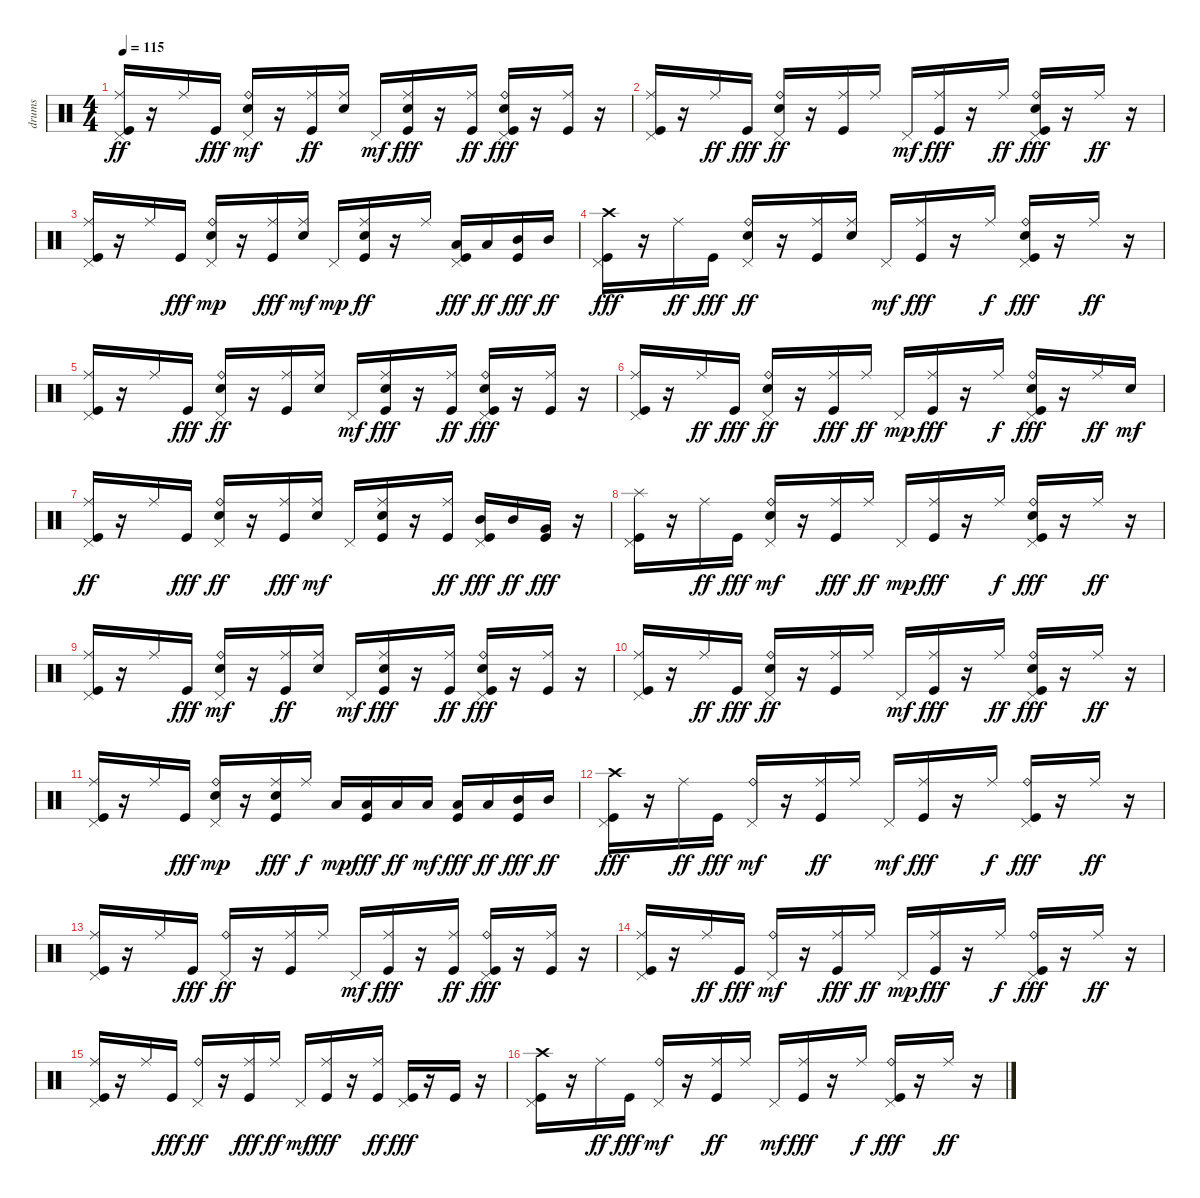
\track ("drums" "drums") {instrument percussion}
\staff {score}
\articulation defaults
\ts (4 4)
\tempo 115
\clef neutral
\ks c
("Pedal Hi-Hat (hit)" "Kick (hit)" "Ride (middle)").16{dy ff} r.16 "Ride (middle)".16 "Kick (hit)".16{dy fff} ("Pedal Hi-Hat (hit)" "Snare (hit) 2" "Ride (bell)").16{dy mf} r.16 ("Kick (hit)" "Ride (middle)").16{dy ff} ("Ride (middle)" "Snare (hit) 2").16 "Pedal Hi-Hat (hit)".16{dy mf} ("Ride (middle)" "Snare (hit) 2" "Kick (hit)").16{dy fff} r.16 ("Kick (hit)" "Ride (middle)").16{dy ff} ("Pedal Hi-Hat (hit)" "Snare (hit) 2" "Ride (bell)" "Kick (hit)").16{dy fff} r.16 ("Ride (middle)" "Kick (hit)").16 r.16 |
("Pedal Hi-Hat (hit)" "Ride (middle)" "Kick (hit)").16 r.16 "Ride (middle)".16{dy ff} "Kick (hit)".16{dy fff} ("Pedal Hi-Hat (hit)" "Ride (bell)" "Snare (hit) 2").16{dy ff} r.16 ("Kick (hit)" "Ride (middle)").16 "Ride (middle)".16 "Pedal Hi-Hat (hit)".16{dy mf} ("Ride (middle)" "Kick (hit)").16{dy fff} r.16 "Ride (middle)".16{dy ff} ("Pedal Hi-Hat (hit)" "Kick (hit)" "Ride (bell)" "Snare (hit) 2").16{dy fff} r.16 "Ride (middle)".16{dy ff} r.16 |
("Pedal Hi-Hat (hit)" "Kick (hit)" "Ride (middle)").16 r.16 "Ride (middle)".16 "Kick (hit)".16{dy fff} ("Pedal Hi-Hat (hit)" "Snare (hit) 2" "Ride (bell)").16{dy mp} r.16 ("Kick (hit)" "Ride (middle)").16{dy fff} ("Ride (middle)" "Snare (hit) 2").16{dy mf} "Pedal Hi-Hat (hit)".16{dy mp} ("Kick (hit)" "Ride (middle)" "Snare (hit) 2").16{dy ff} r.16 "Ride (middle)".16 ("Low Floor Tom (hit)" "Pedal Hi-Hat (hit)" "Kick (hit)").16{dy fff} "Low Floor Tom (hit)".16{dy ff} ("Mid Tom (hit)" "Kick (hit)").16{dy fff} "Mid Tom (hit)".16{dy ff} |
("Crash high (hit)" "Pedal Hi-Hat (hit)" "Kick (hit)").16{dy fff} r.16 "Ride (middle)".16{dy ff} "Kick (hit)".16{dy fff} ("Pedal Hi-Hat (hit)" "Snare (hit) 2" "Ride (bell)").16{dy ff} r.16 ("Kick (hit)" "Ride (middle)").16 ("Snare (hit) 2" "Ride (middle)").16 "Pedal Hi-Hat (hit)".16{dy mf} ("Ride (middle)" "Kick (hit)").16{dy fff} r.16 "Ride (middle)".16{dy f} ("Pedal Hi-Hat (hit)" "Snare (hit) 2" "Ride (bell)" "Kick (hit)").16{dy fff} r.16 "Ride (middle)".16{dy ff} r.16 |
("Pedal Hi-Hat (hit)" "Kick (hit)" "Ride (middle)").16 r.16 "Ride (middle)".16 "Kick (hit)".16{dy fff} ("Pedal Hi-Hat (hit)" "Snare (hit) 2" "Ride (bell)").16{dy ff} r.16 ("Kick (hit)" "Ride (middle)").16 ("Ride (middle)" "Snare (hit) 2").16 "Pedal Hi-Hat (hit)".16{dy mf} ("Ride (middle)" "Snare (hit) 2" "Kick (hit)").16{dy fff} r.16 ("Ride (middle)" "Kick (hit)").16{dy ff} ("Pedal Hi-Hat (hit)" "Ride (bell)" "Snare (hit) 2" "Kick (hit)").16{dy fff} r.16 ("Ride (middle)" "Kick (hit)").16 r.16 |
("Pedal Hi-Hat (hit)" "Ride (middle)" "Kick (hit)").16 r.16 "Ride (middle)".16{dy ff} "Kick (hit)".16{dy fff} ("Pedal Hi-Hat (hit)" "Snare (hit) 2" "Ride (bell)").16{dy ff} r.16 ("Ride (middle)" "Kick (hit)").16{dy fff} "Ride (middle)".16{dy ff} "Pedal Hi-Hat (hit)".16{dy mp} ("Ride (middle)" "Kick (hit)").16{dy fff} r.16 "Ride (middle)".16{dy f} ("Pedal Hi-Hat (hit)" "Ride (bell)" "Snare (hit) 2" "Kick (hit)").16{dy fff} r.16 "Ride (middle)".16{dy ff} "Snare (hit) 2".16{dy mf} |
("Pedal Hi-Hat (hit)" "Kick (hit)" "Ride (middle)").16{dy ff} r.16 "Ride (middle)".16 "Kick (hit)".16{dy fff} ("Pedal Hi-Hat (hit)" "Ride (bell)" "Snare (hit) 2").16{dy ff} r.16 ("Kick (hit)" "Ride (middle)").16{dy fff} ("Ride (middle)" "Snare (hit) 2").16{dy mf} "Pedal Hi-Hat (hit)".16 ("Ride (middle)" "Kick (hit)" "Snare (hit) 2").16 r.16 ("Kick (hit)" "Ride (middle)").16{dy ff} ("Mid Tom (hit)" "Pedal Hi-Hat (hit)" "Kick (hit)").16{dy fff} "Mid Tom (hit)".16{dy ff} ("Very Low Tom (hit)" "Kick (hit)").16{dy fff} r.16 |
("Splash (hit)" "Pedal Hi-Hat (hit)" "Kick (hit)").16 r.16 "Ride (middle)".16{dy ff} "Kick (hit)".16{dy fff} ("Pedal Hi-Hat (hit)" "Snare (hit) 2" "Ride (bell)").16{dy mf} r.16 ("Ride (middle)" "Kick (hit)").16{dy fff} "Ride (middle)".16{dy ff} "Pedal Hi-Hat (hit)".16{dy mp} ("Ride (middle)" "Kick (hit)").16{dy fff} r.16 "Ride (middle)".16{dy f} ("Pedal Hi-Hat (hit)" "Ride (bell)" "Snare (hit) 2" "Kick (hit)").16{dy fff} r.16 "Ride (middle)".16{dy ff} r.16 |
("Pedal Hi-Hat (hit)" "Kick (hit)" "Ride (middle)").16 r.16 "Ride (middle)".16 "Kick (hit)".16{dy fff} ("Pedal Hi-Hat (hit)" "Snare (hit) 2" "Ride (bell)").16{dy mf} r.16 ("Kick (hit)" "Ride (middle)").16{dy ff} ("Ride (middle)" "Snare (hit) 2").16 "Pedal Hi-Hat (hit)".16{dy mf} ("Ride (middle)" "Snare (hit) 2" "Kick (hit)").16{dy fff} r.16 ("Kick (hit)" "Ride (middle)").16{dy ff} ("Pedal Hi-Hat (hit)" "Snare (hit) 2" "Ride (bell)" "Kick (hit)").16{dy fff} r.16 ("Ride (middle)" "Kick (hit)").16 r.16 |
("Pedal Hi-Hat (hit)" "Ride (middle)" "Kick (hit)").16 r.16 "Ride (middle)".16{dy ff} "Kick (hit)".16{dy fff} ("Pedal Hi-Hat (hit)" "Ride (bell)" "Snare (hit) 2").16{dy ff} r.16 ("Kick (hit)" "Ride (middle)").16 "Ride (middle)".16 "Pedal Hi-Hat (hit)".16{dy mf} ("Ride (middle)" "Kick (hit)").16{dy fff} r.16 "Ride (middle)".16{dy ff} ("Pedal Hi-Hat (hit)" "Kick (hit)" "Ride (bell)" "Snare (hit) 2").16{dy fff} r.16 "Ride (middle)".16{dy ff} r.16 |
("Pedal Hi-Hat (hit)" "Kick (hit)" "Ride (middle)").16 r.16 "Ride (middle)".16 "Kick (hit)".16{dy fff} ("Pedal Hi-Hat (hit)" "Snare (hit) 2" "Ride (bell)").16{dy mp} r.16 ("Snare (hit) 2" "Kick (hit)" "Ride (middle)").16{dy fff} "Ride (middle)".16{dy f} "Low Floor Tom (hit)".16{dy mp} ("Low Floor Tom (hit)" "Kick (hit)").16{dy fff} "Low Tom (hit)".16{dy ff} "Low Tom (hit)".16{dy mf} ("Low Floor Tom (hit)" "Kick (hit)").16{dy fff} "Low Floor Tom (hit)".16{dy ff} ("Mid Tom (hit)" "Kick (hit)").16{dy fff} "Mid Tom (hit)".16{dy ff} |
("Crash high (hit)" "Pedal Hi-Hat (hit)" "Kick (hit)").16{dy fff} r.16 "Ride (middle)".16{dy ff} "Kick (hit)".16{dy fff} ("Pedal Hi-Hat (hit)" "Ride (bell)").16{dy mf} r.16 ("Kick (hit)" "Ride (middle)").16{dy ff} "Ride (middle)".16 "Pedal Hi-Hat (hit)".16{dy mf} ("Ride (middle)" "Kick (hit)").16{dy fff} r.16 "Ride (middle)".16{dy f} ("Pedal Hi-Hat (hit)" "Ride (bell)" "Kick (hit)").16{dy fff} r.16 "Ride (middle)".16{dy ff} r.16 |
("Pedal Hi-Hat (hit)" "Kick (hit)" "Ride (middle)").16 r.16 "Ride (middle)".16 "Kick (hit)".16{dy fff} ("Pedal Hi-Hat (hit)" "Ride (bell)").16{dy ff} r.16 ("Kick (hit)" "Ride (middle)").16 "Ride (middle)".16 "Pedal Hi-Hat (hit)".16{dy mf} ("Ride (middle)" "Kick (hit)").16{dy fff} r.16 ("Ride (middle)" "Kick (hit)").16{dy ff} ("Pedal Hi-Hat (hit)" "Ride (bell)" "Kick (hit)").16{dy fff} r.16 ("Ride (middle)" "Kick (hit)").16 r.16 |
("Pedal Hi-Hat (hit)" "Ride (middle)" "Kick (hit)").16 r.16 "Ride (middle)".16{dy ff} "Kick (hit)".16{dy fff} ("Pedal Hi-Hat (hit)" "Ride (bell)").16{dy mf} r.16 ("Ride (middle)" "Kick (hit)").16{dy fff} "Ride (middle)".16{dy ff} "Pedal Hi-Hat (hit)".16{dy mp} ("Ride (middle)" "Kick (hit)").16{dy fff} r.16 "Ride (middle)".16{dy f} ("Pedal Hi-Hat (hit)" "Ride (bell)" "Kick (hit)").16{dy fff} r.16 "Ride (middle)".16{dy ff} r.16 |
("Pedal Hi-Hat (hit)" "Kick (hit)" "Ride (middle)").16 r.16 "Ride (middle)".16 "Kick (hit)".16{dy fff} ("Pedal Hi-Hat (hit)" "Ride (bell)").16{dy ff} r.16 ("Kick (hit)" "Ride (middle)").16{dy fff} "Ride (middle)".16{dy ff} "Pedal Hi-Hat (hit)".16{dy mf} ("Ride (middle)" "Kick (hit)").16{dy fff} r.16 ("Kick (hit)" "Ride (middle)").16{dy ff} ("Pedal Hi-Hat (hit)" "Kick (hit)").16{dy fff} r.16 "Kick (hit)".16 r.16 |
("Crash high (hit)" "Pedal Hi-Hat (hit)" "Kick (hit)").16 r.16 "Ride (middle)".16{dy ff} "Kick (hit)".16{dy fff} ("Pedal Hi-Hat (hit)" "Ride (bell)").16{dy mf} r.16 ("Kick (hit)" "Ride (middle)").16{dy ff} "Ride (middle)".16 "Pedal Hi-Hat (hit)".16{dy mf} ("Ride (middle)" "Kick (hit)").16{dy fff} r.16 "Ride (middle)".16{dy f} ("Pedal Hi-Hat (hit)" "Ride (bell)" "Kick (hit)").16{dy fff} r.16 "Ride (middle)".16{dy ff} r.16
